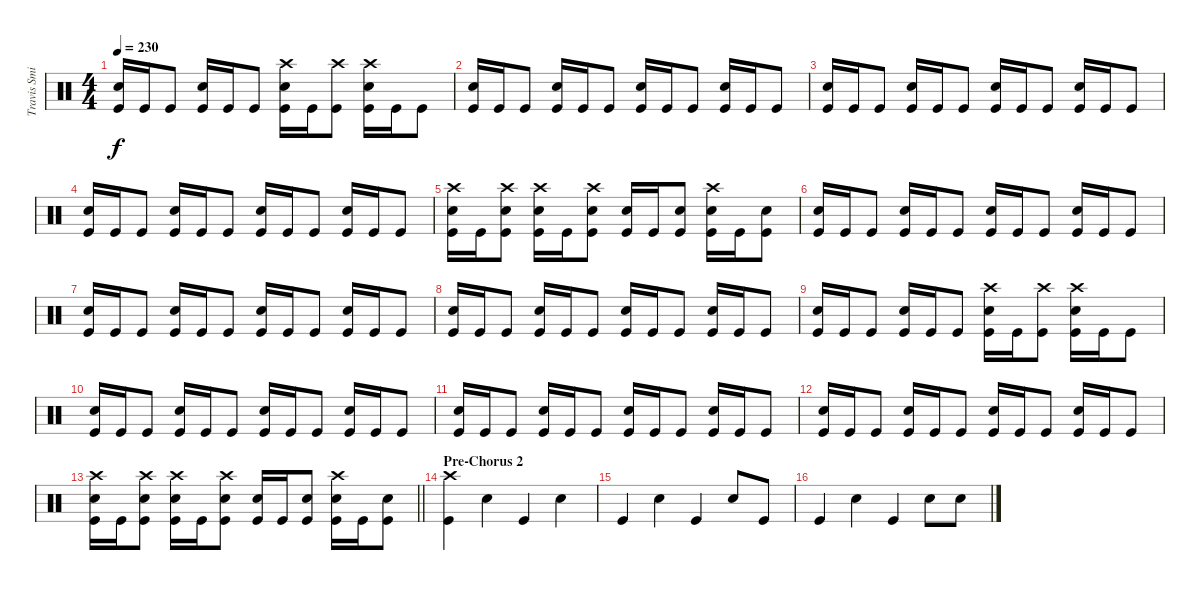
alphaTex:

\track ("Travis Smith" "Travis Smi") {instrument percussion}
\staff {score}
\articulation defaults
\ts (4 4)
\tempo 230
\clef neutral
\ks c
("Snare (hit) 2" "Kick (hit)").16{dy f} "Kick (hit)".16 "Kick (hit)".8 ("Snare (hit) 2" "Kick (hit)").16 "Kick (hit)".16 "Kick (hit)".8 ("Crash high (hit)" "Snare (hit) 2" "Kick (hit)").16 "Kick (hit)".16 ("Crash high (hit)" "Kick (hit)").8 ("Crash high (hit)" "Snare (hit) 2" "Kick (hit)").16 "Kick (hit)".16 "Kick (hit)".8 |
("Snare (hit) 2" "Kick (hit)").16 "Kick (hit)".16 "Kick (hit)".8 ("Snare (hit) 2" "Kick (hit)").16 "Kick (hit)".16 "Kick (hit)".8 ("Snare (hit) 2" "Kick (hit)").16 "Kick (hit)".16 "Kick (hit)".8 ("Snare (hit) 2" "Kick (hit)").16 "Kick (hit)".16 "Kick (hit)".8 |
("Snare (hit) 2" "Kick (hit)").16 "Kick (hit)".16 "Kick (hit)".8 ("Snare (hit) 2" "Kick (hit)").16 "Kick (hit)".16 "Kick (hit)".8 ("Snare (hit) 2" "Kick (hit)").16 "Kick (hit)".16 "Kick (hit)".8 ("Snare (hit) 2" "Kick (hit)").16 "Kick (hit)".16 "Kick (hit)".8 |
("Snare (hit) 2" "Kick (hit)").16 "Kick (hit)".16 "Kick (hit)".8 ("Snare (hit) 2" "Kick (hit)").16 "Kick (hit)".16 "Kick (hit)".8 ("Snare (hit) 2" "Kick (hit)").16 "Kick (hit)".16 "Kick (hit)".8 ("Snare (hit) 2" "Kick (hit)").16 "Kick (hit)".16 "Kick (hit)".8 |
("Crash high (hit)" "Snare (hit) 2" "Kick (hit)").16 "Kick (hit)".16 ("Crash high (hit)" "Snare (hit) 2" "Kick (hit)").8 ("Crash high (hit)" "Snare (hit) 2" "Kick (hit)").16 "Kick (hit)".16 ("Crash high (hit)" "Snare (hit) 2" "Kick (hit)").8 ("Snare (hit) 2" "Kick (hit)").16 "Kick (hit)".16 ("Snare (hit) 2" "Kick (hit)").8 ("Crash high (hit)" "Snare (hit) 2" "Kick (hit)").16 "Kick (hit)".16 ("Snare (hit) 2" "Kick (hit)").8 |
("Snare (hit) 2" "Kick (hit)").16 "Kick (hit)".16 "Kick (hit)".8 ("Snare (hit) 2" "Kick (hit)").16 "Kick (hit)".16 "Kick (hit)".8 ("Snare (hit) 2" "Kick (hit)").16 "Kick (hit)".16 "Kick (hit)".8 ("Snare (hit) 2" "Kick (hit)").16 "Kick (hit)".16 "Kick (hit)".8 |
("Snare (hit) 2" "Kick (hit)").16 "Kick (hit)".16 "Kick (hit)".8 ("Snare (hit) 2" "Kick (hit)").16 "Kick (hit)".16 "Kick (hit)".8 ("Snare (hit) 2" "Kick (hit)").16 "Kick (hit)".16 "Kick (hit)".8 ("Snare (hit) 2" "Kick (hit)").16 "Kick (hit)".16 "Kick (hit)".8 |
("Snare (hit) 2" "Kick (hit)").16 "Kick (hit)".16 "Kick (hit)".8 ("Snare (hit) 2" "Kick (hit)").16 "Kick (hit)".16 "Kick (hit)".8 ("Snare (hit) 2" "Kick (hit)").16 "Kick (hit)".16 "Kick (hit)".8 ("Snare (hit) 2" "Kick (hit)").16 "Kick (hit)".16 "Kick (hit)".8 |
("Snare (hit) 2" "Kick (hit)").16 "Kick (hit)".16 "Kick (hit)".8 ("Snare (hit) 2" "Kick (hit)").16 "Kick (hit)".16 "Kick (hit)".8 ("Crash high (hit)" "Snare (hit) 2" "Kick (hit)").16 "Kick (hit)".16 ("Crash high (hit)" "Kick (hit)").8 ("Crash high (hit)" "Snare (hit) 2" "Kick (hit)").16 "Kick (hit)".16 "Kick (hit)".8 |
("Snare (hit) 2" "Kick (hit)").16 "Kick (hit)".16 "Kick (hit)".8 ("Snare (hit) 2" "Kick (hit)").16 "Kick (hit)".16 "Kick (hit)".8 ("Snare (hit) 2" "Kick (hit)").16 "Kick (hit)".16 "Kick (hit)".8 ("Snare (hit) 2" "Kick (hit)").16 "Kick (hit)".16 "Kick (hit)".8 |
("Snare (hit) 2" "Kick (hit)").16 "Kick (hit)".16 "Kick (hit)".8 ("Snare (hit) 2" "Kick (hit)").16 "Kick (hit)".16 "Kick (hit)".8 ("Snare (hit) 2" "Kick (hit)").16 "Kick (hit)".16 "Kick (hit)".8 ("Snare (hit) 2" "Kick (hit)").16 "Kick (hit)".16 "Kick (hit)".8 |
("Snare (hit) 2" "Kick (hit)").16 "Kick (hit)".16 "Kick (hit)".8 ("Snare (hit) 2" "Kick (hit)").16 "Kick (hit)".16 "Kick (hit)".8 ("Snare (hit) 2" "Kick (hit)").16 "Kick (hit)".16 "Kick (hit)".8 ("Snare (hit) 2" "Kick (hit)").16 "Kick (hit)".16 "Kick (hit)".8 |
\barLineRight lightlight
("Crash high (hit)" "Snare (hit) 2" "Kick (hit)").16 "Kick (hit)".16 ("Crash high (hit)" "Snare (hit) 2" "Kick (hit)").8 ("Crash high (hit)" "Snare (hit) 2" "Kick (hit)").16 "Kick (hit)".16 ("Crash high (hit)" "Snare (hit) 2" "Kick (hit)").8 ("Snare (hit) 2" "Kick (hit)").16 "Kick (hit)".16 ("Snare (hit) 2" "Kick (hit)").8 ("Crash high (hit)" "Snare (hit) 2" "Kick (hit)").16 "Kick (hit)".16 ("Snare (hit) 2" "Kick (hit)").8 |
\section ("" "Pre-Chorus 2")
("Crash high (hit)" "Kick (hit)").4 "Snare (hit) 2".4 "Kick (hit)".4 "Snare (hit) 2".4 |
"Kick (hit)".4 "Snare (hit) 2".4 "Kick (hit)".4 "Snare (hit) 2".8 "Kick (hit)".8 |
"Kick (hit)".4 "Snare (hit) 2".4 "Kick (hit)".4 "Snare (hit) 2".8 "Snare (hit) 2".8
